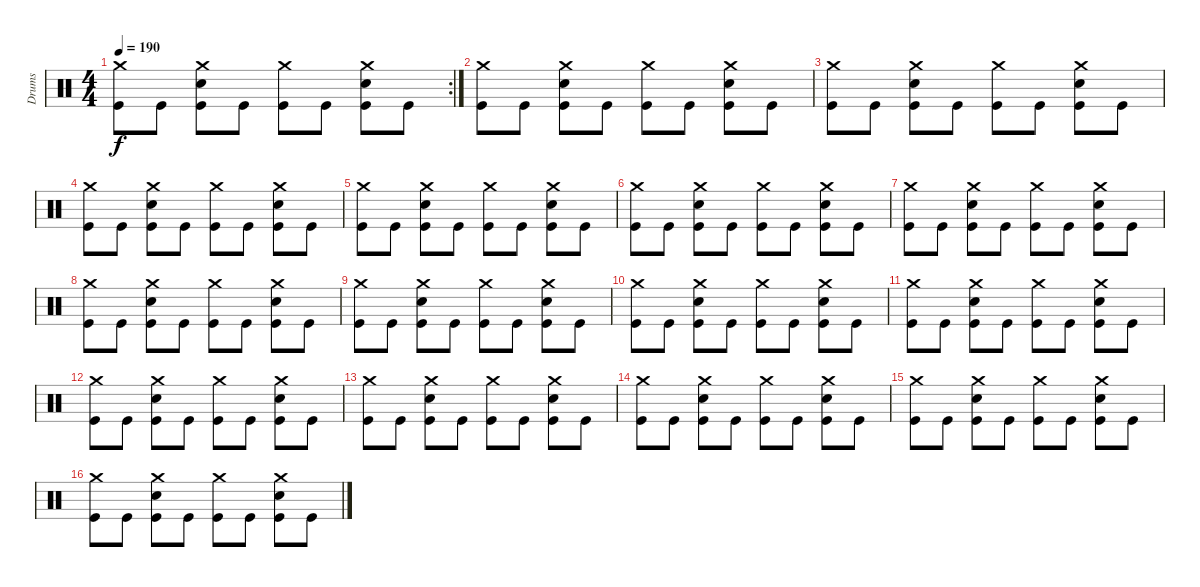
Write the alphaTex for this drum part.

\track ("Drums" "Drums") {instrument percussion}
\staff {score}
\articulation defaults
\rc 2
\ts (4 4)
\tempo 190
\clef neutral
\ks c
("Crash medium (hit)" "Kick (hit)").8{dy f} "Kick (hit)".8 ("Crash medium (hit)" "Snare (hit) 2" "Kick (hit)").8 "Kick (hit)".8 ("Crash medium (hit)" "Kick (hit)").8 "Kick (hit)".8 ("Crash medium (hit)" "Snare (hit) 2" "Kick (hit)").8 "Kick (hit)".8 |
("Crash medium (hit)" "Kick (hit)").8 "Kick (hit)".8 ("Crash medium (hit)" "Snare (hit) 2" "Kick (hit)").8 "Kick (hit)".8 ("Crash medium (hit)" "Kick (hit)").8 "Kick (hit)".8 ("Crash medium (hit)" "Snare (hit) 2" "Kick (hit)").8 "Kick (hit)".8 |
("Crash medium (hit)" "Kick (hit)").8 "Kick (hit)".8 ("Crash medium (hit)" "Snare (hit) 2" "Kick (hit)").8 "Kick (hit)".8 ("Crash medium (hit)" "Kick (hit)").8 "Kick (hit)".8 ("Crash medium (hit)" "Snare (hit) 2" "Kick (hit)").8 "Kick (hit)".8 |
("Crash medium (hit)" "Kick (hit)").8 "Kick (hit)".8 ("Crash medium (hit)" "Snare (hit) 2" "Kick (hit)").8 "Kick (hit)".8 ("Crash medium (hit)" "Kick (hit)").8 "Kick (hit)".8 ("Crash medium (hit)" "Snare (hit) 2" "Kick (hit)").8 "Kick (hit)".8 |
("Crash medium (hit)" "Kick (hit)").8 "Kick (hit)".8 ("Crash medium (hit)" "Snare (hit) 2" "Kick (hit)").8 "Kick (hit)".8 ("Crash medium (hit)" "Kick (hit)").8 "Kick (hit)".8 ("Crash medium (hit)" "Snare (hit) 2" "Kick (hit)").8 "Kick (hit)".8 |
("Crash medium (hit)" "Kick (hit)").8 "Kick (hit)".8 ("Crash medium (hit)" "Snare (hit) 2" "Kick (hit)").8 "Kick (hit)".8 ("Crash medium (hit)" "Kick (hit)").8 "Kick (hit)".8 ("Crash medium (hit)" "Snare (hit) 2" "Kick (hit)").8 "Kick (hit)".8 |
("Crash medium (hit)" "Kick (hit)").8 "Kick (hit)".8 ("Crash medium (hit)" "Snare (hit) 2" "Kick (hit)").8 "Kick (hit)".8 ("Crash medium (hit)" "Kick (hit)").8 "Kick (hit)".8 ("Crash medium (hit)" "Snare (hit) 2" "Kick (hit)").8 "Kick (hit)".8 |
("Crash medium (hit)" "Kick (hit)").8 "Kick (hit)".8 ("Crash medium (hit)" "Snare (hit) 2" "Kick (hit)").8 "Kick (hit)".8 ("Crash medium (hit)" "Kick (hit)").8 "Kick (hit)".8 ("Crash medium (hit)" "Snare (hit) 2" "Kick (hit)").8 "Kick (hit)".8 |
("Crash medium (hit)" "Kick (hit)").8 "Kick (hit)".8 ("Crash medium (hit)" "Snare (hit) 2" "Kick (hit)").8 "Kick (hit)".8 ("Crash medium (hit)" "Kick (hit)").8 "Kick (hit)".8 ("Crash medium (hit)" "Snare (hit) 2" "Kick (hit)").8 "Kick (hit)".8 |
("Crash medium (hit)" "Kick (hit)").8 "Kick (hit)".8 ("Crash medium (hit)" "Snare (hit) 2" "Kick (hit)").8 "Kick (hit)".8 ("Crash medium (hit)" "Kick (hit)").8 "Kick (hit)".8 ("Crash medium (hit)" "Snare (hit) 2" "Kick (hit)").8 "Kick (hit)".8 |
("Crash medium (hit)" "Kick (hit)").8 "Kick (hit)".8 ("Crash medium (hit)" "Snare (hit) 2" "Kick (hit)").8 "Kick (hit)".8 ("Crash medium (hit)" "Kick (hit)").8 "Kick (hit)".8 ("Crash medium (hit)" "Snare (hit) 2" "Kick (hit)").8 "Kick (hit)".8 |
("Crash medium (hit)" "Kick (hit)").8 "Kick (hit)".8 ("Crash medium (hit)" "Snare (hit) 2" "Kick (hit)").8 "Kick (hit)".8 ("Crash medium (hit)" "Kick (hit)").8 "Kick (hit)".8 ("Crash medium (hit)" "Snare (hit) 2" "Kick (hit)").8 "Kick (hit)".8 |
("Crash medium (hit)" "Kick (hit)").8 "Kick (hit)".8 ("Crash medium (hit)" "Snare (hit) 2" "Kick (hit)").8 "Kick (hit)".8 ("Crash medium (hit)" "Kick (hit)").8 "Kick (hit)".8 ("Crash medium (hit)" "Snare (hit) 2" "Kick (hit)").8 "Kick (hit)".8 |
("Crash medium (hit)" "Kick (hit)").8 "Kick (hit)".8 ("Crash medium (hit)" "Snare (hit) 2" "Kick (hit)").8 "Kick (hit)".8 ("Crash medium (hit)" "Kick (hit)").8 "Kick (hit)".8 ("Crash medium (hit)" "Snare (hit) 2" "Kick (hit)").8 "Kick (hit)".8 |
("Crash medium (hit)" "Kick (hit)").8 "Kick (hit)".8 ("Crash medium (hit)" "Snare (hit) 2" "Kick (hit)").8 "Kick (hit)".8 ("Crash medium (hit)" "Kick (hit)").8 "Kick (hit)".8 ("Crash medium (hit)" "Snare (hit) 2" "Kick (hit)").8 "Kick (hit)".8 |
("Crash medium (hit)" "Kick (hit)").8 "Kick (hit)".8 ("Crash medium (hit)" "Snare (hit) 2" "Kick (hit)").8 "Kick (hit)".8 ("Crash medium (hit)" "Kick (hit)").8 "Kick (hit)".8 ("Crash medium (hit)" "Snare (hit) 2" "Kick (hit)").8 "Kick (hit)".8
